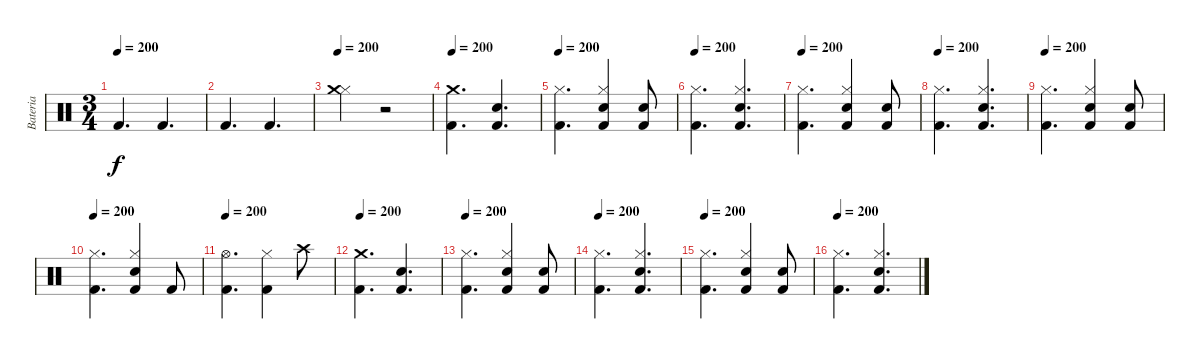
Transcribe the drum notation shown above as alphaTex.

\track ("Bateria" "Bateria") {instrument percussion}
\staff {score}
\articulation defaults
\ts (3 4)
\tempo 200
\clef neutral
\ks c "Kick (hit) 2".4{d dy f} "Kick (hit) 2".4{d}
|
"Kick (hit) 2".4{d} "Kick (hit) 2".4{d} |
\tempo 200
("Hi-Hat (closed)" "Crash medium (hit)").4 r.2 |
\tempo 200
("Crash medium (hit)" "Kick (hit) 2").4{d volume 12} ("Electric Snare (hit)" "Kick (hit) 2").4{d} |
\tempo 200
("Hi-Hat (closed)" "Kick (hit) 2").4{d} ("Hi-Hat (closed)" "Electric Snare (hit)" "Kick (hit) 2").4 ("Electric Snare (hit)" "Kick (hit) 2").8 |
\tempo 200
("Hi-Hat (closed)" "Kick (hit) 2").4{d} ("Hi-Hat (closed)" "Electric Snare (hit)" "Kick (hit) 2").4{d} |
\tempo 200
("Hi-Hat (closed)" "Kick (hit) 2").4{d} ("Hi-Hat (closed)" "Electric Snare (hit)" "Kick (hit) 2").4 ("Electric Snare (hit)" "Kick (hit) 2").8 |
\tempo 200
("Hi-Hat (closed)" "Kick (hit) 2").4{d} ("Hi-Hat (closed)" "Electric Snare (hit)" "Kick (hit) 2").4{d} |
\tempo 200
("Hi-Hat (closed)" "Kick (hit) 2").4{d} ("Hi-Hat (closed)" "Electric Snare (hit)" "Kick (hit) 2").4 ("Electric Snare (hit)" "Kick (hit) 2").8 |
\tempo 200
("Hi-Hat (closed)" "Kick (hit) 2").4{d} ("Hi-Hat (closed)" "Electric Snare (hit)" "Kick (hit) 2").4 "Kick (hit) 2".8 |
\tempo 200
("Hi-Hat (open)" "Kick (hit) 2").4{d} ("Hi-Hat (closed)" "Kick (hit) 2").4 "Crash high (hit)".8 |
\tempo 200
("Crash medium (hit)" "Kick (hit) 2").4{d} ("Electric Snare (hit)" "Kick (hit) 2").4{d} |
\tempo 200
("Hi-Hat (closed)" "Kick (hit) 2").4{d} ("Hi-Hat (closed)" "Electric Snare (hit)" "Kick (hit) 2").4 ("Electric Snare (hit)" "Kick (hit) 2").8 |
\tempo 200
("Hi-Hat (closed)" "Kick (hit) 2").4{d} ("Hi-Hat (closed)" "Electric Snare (hit)" "Kick (hit) 2").4{d} |
\tempo 200
("Hi-Hat (closed)" "Kick (hit) 2").4{d} ("Hi-Hat (closed)" "Electric Snare (hit)" "Kick (hit) 2").4 ("Electric Snare (hit)" "Kick (hit) 2").8 |
\tempo 200
("Hi-Hat (closed)" "Kick (hit) 2").4{d} ("Hi-Hat (closed)" "Electric Snare (hit)" "Kick (hit) 2").4{d}
